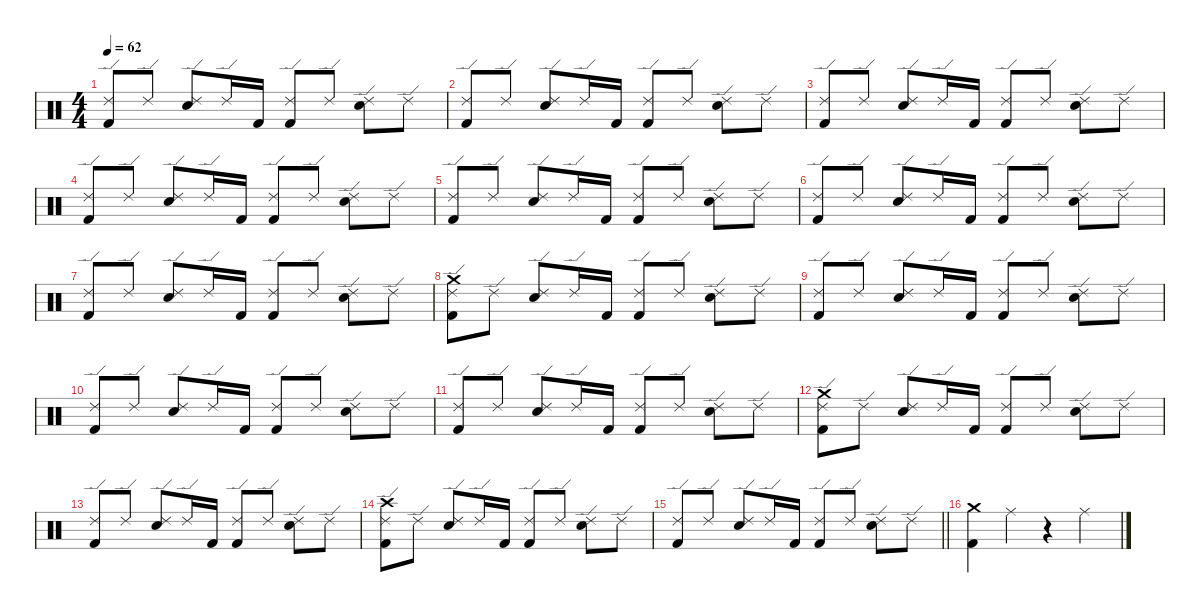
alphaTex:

\defaultSystemsLayout 4
\hideDynamics
\bracketExtendMode nobrackets
\singleTrackTrackNamePolicy hidden
\multiTrackTrackNamePolicy hidden
\firstSystemTrackNameMode fullname
\otherSystemsTrackNameOrientation horizontal
\track ("Drums" "drm.") {defaultSystemsLayout 4 instrument percussion}
\staff {score}
\articulation defaults
\ts (4 4)
\tempo 62
\clef neutral
\ks c
("Ride (edge) 2" "Kick (hit) 2").8{dy f beam Up} "Ride (edge) 2".8{beam Up} ("Ride (edge) 2" "Snare (hit) 2").8{beam Up} "Ride (edge) 2".16{beam Up} "Kick (hit) 2".16{beam Up} ("Ride (edge) 2" "Kick (hit) 2").8{beam Up} "Ride (edge) 2".8{beam Up} ("Ride (edge) 2" "Snare (hit) 2").8{beam Down} "Ride (edge) 2".8{beam Down} |
("Ride (edge) 2" "Kick (hit) 2").8{beam Up} "Ride (edge) 2".8{beam Up} ("Ride (edge) 2" "Snare (hit) 2").8{beam Up} "Ride (edge) 2".16{beam Up} "Kick (hit) 2".16{beam Up} ("Ride (edge) 2" "Kick (hit) 2").8{beam Up} "Ride (edge) 2".8{beam Up} ("Ride (edge) 2" "Snare (hit) 2").8{beam Down} "Ride (edge) 2".8{beam Down} |
("Ride (edge) 2" "Kick (hit) 2").8{beam Up} "Ride (edge) 2".8{beam Up} ("Ride (edge) 2" "Snare (hit) 2").8{beam Up} "Ride (edge) 2".16{beam Up} "Kick (hit) 2".16{beam Up} ("Ride (edge) 2" "Kick (hit) 2").8{beam Up} "Ride (edge) 2".8{beam Up} ("Ride (edge) 2" "Snare (hit) 2").8{beam Down} "Ride (edge) 2".8{beam Down} |
("Ride (edge) 2" "Kick (hit) 2").8{beam Up} "Ride (edge) 2".8{beam Up} ("Ride (edge) 2" "Snare (hit) 2").8{beam Up} "Ride (edge) 2".16{beam Up} "Kick (hit) 2".16{beam Up} ("Ride (edge) 2" "Kick (hit) 2").8{beam Up} "Ride (edge) 2".8{beam Up} ("Ride (edge) 2" "Snare (hit) 2").8{beam Down} "Ride (edge) 2".8{beam Down} |
("Ride (edge) 2" "Kick (hit) 2").8{beam Up} "Ride (edge) 2".8{beam Up} ("Ride (edge) 2" "Snare (hit) 2").8{beam Up} "Ride (edge) 2".16{beam Up} "Kick (hit) 2".16{beam Up} ("Ride (edge) 2" "Kick (hit) 2").8{beam Up} "Ride (edge) 2".8{beam Up} ("Ride (edge) 2" "Snare (hit) 2").8{beam Down} "Ride (edge) 2".8{beam Down} |
("Ride (edge) 2" "Kick (hit) 2").8{beam Up} "Ride (edge) 2".8{beam Up} ("Ride (edge) 2" "Snare (hit) 2").8{beam Up} "Ride (edge) 2".16{beam Up} "Kick (hit) 2".16{beam Up} ("Ride (edge) 2" "Kick (hit) 2").8{beam Up} "Ride (edge) 2".8{beam Up} ("Ride (edge) 2" "Snare (hit) 2").8{beam Down} "Ride (edge) 2".8{beam Down} |
("Ride (edge) 2" "Kick (hit) 2").8{beam Up} "Ride (edge) 2".8{beam Up} ("Ride (edge) 2" "Snare (hit) 2").8{beam Up} "Ride (edge) 2".16{beam Up} "Kick (hit) 2".16{beam Up} ("Ride (edge) 2" "Kick (hit) 2").8{beam Up} "Ride (edge) 2".8{beam Up} ("Ride (edge) 2" "Snare (hit) 2").8{beam Down} "Ride (edge) 2".8{beam Down} |
("Crash medium (hit)" "Ride (edge) 2" "Kick (hit) 2").8{beam Down} "Ride (edge) 2".8{beam Down} ("Ride (edge) 2" "Snare (hit) 2").8{beam Up} "Ride (edge) 2".16{beam Up} "Kick (hit) 2".16{beam Up} ("Ride (edge) 2" "Kick (hit) 2").8{beam Up} "Ride (edge) 2".8{beam Up} ("Ride (edge) 2" "Snare (hit) 2").8{beam Down} "Ride (edge) 2".8{beam Down} |
("Ride (edge) 2" "Kick (hit) 2").8{beam Up} "Ride (edge) 2".8{beam Up} ("Ride (edge) 2" "Snare (hit) 2").8{beam Up} "Ride (edge) 2".16{beam Up} "Kick (hit) 2".16{beam Up} ("Ride (edge) 2" "Kick (hit) 2").8{beam Up} "Ride (edge) 2".8{beam Up} ("Ride (edge) 2" "Snare (hit) 2").8{beam Down} "Ride (edge) 2".8{beam Down} |
("Ride (edge) 2" "Kick (hit) 2").8{beam Up} "Ride (edge) 2".8{beam Up} ("Ride (edge) 2" "Snare (hit) 2").8{beam Up} "Ride (edge) 2".16{beam Up} "Kick (hit) 2".16{beam Up} ("Ride (edge) 2" "Kick (hit) 2").8{beam Up} "Ride (edge) 2".8{beam Up} ("Ride (edge) 2" "Snare (hit) 2").8{beam Down} "Ride (edge) 2".8{beam Down} |
("Ride (edge) 2" "Kick (hit) 2").8{beam Up} "Ride (edge) 2".8{beam Up} ("Ride (edge) 2" "Snare (hit) 2").8{beam Up} "Ride (edge) 2".16{beam Up} "Kick (hit) 2".16{beam Up} ("Ride (edge) 2" "Kick (hit) 2").8{beam Up} "Ride (edge) 2".8{beam Up} ("Ride (edge) 2" "Snare (hit) 2").8{beam Down} "Ride (edge) 2".8{beam Down} |
("Crash medium (hit)" "Ride (edge) 2" "Kick (hit) 2").8{beam Down} "Ride (edge) 2".8{beam Down} ("Ride (edge) 2" "Snare (hit) 2").8{beam Up} "Ride (edge) 2".16{beam Up} "Kick (hit) 2".16{beam Up} ("Ride (edge) 2" "Kick (hit) 2").8{beam Up} "Ride (edge) 2".8{beam Up} ("Ride (edge) 2" "Snare (hit) 2").8{beam Down} "Ride (edge) 2".8{beam Down} |
("Ride (edge) 2" "Kick (hit) 2").8{beam Up} "Ride (edge) 2".8{beam Up} ("Ride (edge) 2" "Snare (hit) 2").8{beam Up} "Ride (edge) 2".16{beam Up} "Kick (hit) 2".16{beam Up} ("Ride (edge) 2" "Kick (hit) 2").8{beam Up} "Ride (edge) 2".8{beam Up} ("Ride (edge) 2" "Snare (hit) 2").8{beam Down} "Ride (edge) 2".8{beam Down} |
("Crash high (hit)" "Ride (edge) 2" "Kick (hit) 2").8{beam Down} "Ride (edge) 2".8{beam Down} ("Ride (edge) 2" "Snare (hit) 2").8{beam Up} "Ride (edge) 2".16{beam Up} "Kick (hit) 2".16{beam Up} ("Ride (edge) 2" "Kick (hit) 2").8{beam Up} "Ride (edge) 2".8{beam Up} ("Ride (edge) 2" "Snare (hit) 2").8{beam Down} "Ride (edge) 2".8{beam Down} |
\barLineRight lightlight
("Ride (edge) 2" "Kick (hit) 2").8{beam Up} "Ride (edge) 2".8{beam Up} ("Ride (edge) 2" "Snare (hit) 2").8{beam Up} "Ride (edge) 2".16{beam Up} "Kick (hit) 2".16{beam Up} ("Ride (edge) 2" "Kick (hit) 2").8{beam Up} "Ride (edge) 2".8{beam Up} ("Ride (edge) 2" "Snare (hit) 2").8{beam Down} "Ride (edge) 2".8{beam Down} |
("Crash medium (hit)" "Kick (hit) 2").4{beam Down} "Ride (middle)".4{beam Down} r.4{beam Down} "Ride (middle)".4{beam Down}
